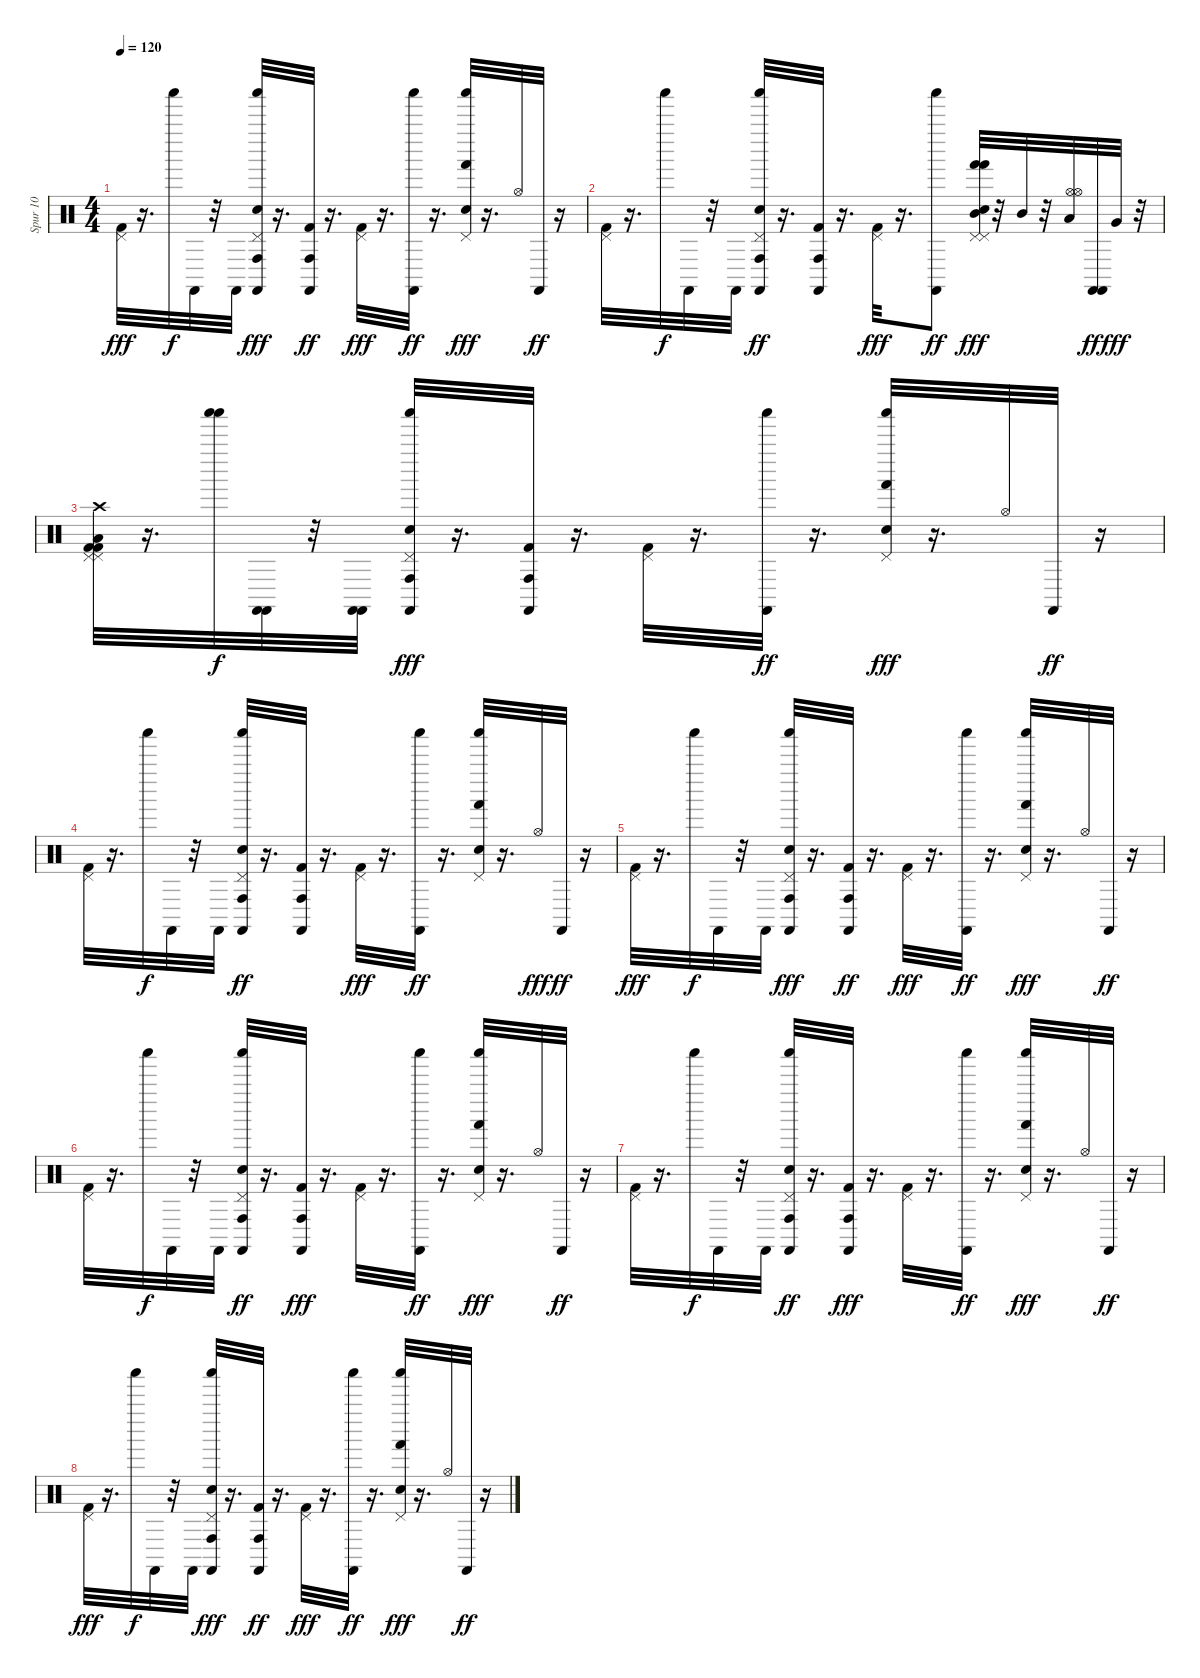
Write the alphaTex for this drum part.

\track ("Spur 10" "Spur 10") {instrument percussion}
\staff {score}
\articulation defaults
\ts (4 4)
\tempo 120
\clef neutral
\ks c
("Pedal Hi-Hat (hit)" "Kick (hit) 2").32{dy fff} r.16{d} "Shaker (hit)".32{dy f} "Castanets (hit)".32 r.32 "Castanets (hit)".32 ("Shaker (hit)" "Conga high (hit)" "Castanets (hit)" "Snare (hit) 2" "Pedal Hi-Hat (hit)").32{dy fff} r.16{d} ("Conga high (hit)" "Castanets (hit)" "Kick (hit) 2").32{dy ff} r.16{d} ("Kick (hit) 2" "Pedal Hi-Hat (hit)").32{dy fff} r.16{d} ("Castanets (hit)" "Shaker (hit)").32{dy ff} r.16{d} ("Shaker (hit)" "Pedal Hi-Hat (hit)" "Hand (hit)" "Snare (hit) 2").32{dy fff} r.16{d} "Hi-Hat (open)".32 "Castanets (hit)".32{dy ff} r.16 |
("Kick (hit) 2" "Pedal Hi-Hat (hit)").32 r.16{d} "Shaker (hit)".32{dy f} "Castanets (hit)".32 r.32 "Castanets (hit)".32 ("Conga high (hit)" "Snare (hit) 2" "Pedal Hi-Hat (hit)" "Shaker (hit)" "Castanets (hit)").32{dy ff} r.16{d} ("Castanets (hit)" "Conga high (hit)" "Kick (hit) 2").32 r.16{d} ("Kick (hit) 2" "Pedal Hi-Hat (hit)").32{dy fff} r.16{d} ("Castanets (hit)" "Shaker (hit)").8{dy ff} ("Mid Tom (hit)" "Pedal Hi-Hat (hit)" "Hand (hit)" "Snare (hit) 2" "Hand (hit)" "Pedal Hi-Hat (hit)").32{dy fff} r.32 "Mid Tom (hit)".32 r.32 ("Low Tom (hit)" "Hi-Hat (open)" "Hi-Hat (open)").32 ("Castanets (hit)" "Castanets (hit)").32{dy ff} "Very Low Tom (hit)".32{dy fff} r.32 |
("Low Floor Tom (hit)" "Crash high (hit)" "Pedal Hi-Hat (hit)" "Kick (hit) 2" "Pedal Hi-Hat (hit)" "Kick (hit) 2").32 r.16{d} ("Shaker (hit)" "Shaker (hit)").32{dy f} ("Castanets (hit)" "Castanets (hit)").32 r.32 ("Castanets (hit)" "Castanets (hit)").32 ("Conga high (hit)" "Shaker (hit)" "Pedal Hi-Hat (hit)" "Castanets (hit)" "Snare (hit) 2").32{dy fff} r.16{d} ("Castanets (hit)" "Kick (hit) 2" "Conga high (hit)").32 r.16{d} ("Kick (hit) 2" "Pedal Hi-Hat (hit)").32 r.16{d} ("Castanets (hit)" "Shaker (hit)").32{dy ff} r.16{d} ("Hand (hit)" "Pedal Hi-Hat (hit)" "Shaker (hit)" "Snare (hit) 2").32{dy fff} r.16{d} "Hi-Hat (open)".32 "Castanets (hit)".32{dy ff} r.16 |
("Kick (hit) 2" "Pedal Hi-Hat (hit)").32 r.16{d} "Shaker (hit)".32{dy f} "Castanets (hit)".32 r.32 "Castanets (hit)".32 ("Snare (hit) 2" "Shaker (hit)" "Pedal Hi-Hat (hit)" "Conga high (hit)" "Castanets (hit)").32{dy ff} r.16{d} ("Castanets (hit)" "Conga high (hit)" "Kick (hit) 2").32 r.16{d} ("Kick (hit) 2" "Pedal Hi-Hat (hit)").32{dy fff} r.16{d} ("Shaker (hit)" "Castanets (hit)").32{dy ff} r.16{d} ("Pedal Hi-Hat (hit)" "Hand (hit)" "Snare (hit) 2" "Shaker (hit)").32 r.16{d} "Hi-Hat (open)".32{dy fff} "Castanets (hit)".32{dy ff} r.16 |
("Pedal Hi-Hat (hit)" "Kick (hit) 2").32{dy fff} r.16{d} "Shaker (hit)".32{dy f} "Castanets (hit)".32 r.32 "Castanets (hit)".32 ("Snare (hit) 2" "Conga high (hit)" "Shaker (hit)" "Castanets (hit)" "Pedal Hi-Hat (hit)").32{dy fff} r.16{d} ("Conga high (hit)" "Kick (hit) 2" "Castanets (hit)").32{dy ff} r.16{d} ("Pedal Hi-Hat (hit)" "Kick (hit) 2").32{dy fff} r.16{d} ("Shaker (hit)" "Castanets (hit)").32{dy ff} r.16{d} ("Shaker (hit)" "Snare (hit) 2" "Hand (hit)" "Pedal Hi-Hat (hit)").32{dy fff} r.16{d} "Hi-Hat (open)".32 "Castanets (hit)".32{dy ff} r.16 |
("Kick (hit) 2" "Pedal Hi-Hat (hit)").32 r.16{d} "Shaker (hit)".32{dy f} "Castanets (hit)".32 r.32 "Castanets (hit)".32 ("Snare (hit) 2" "Conga high (hit)" "Pedal Hi-Hat (hit)" "Shaker (hit)" "Castanets (hit)").32{dy ff} r.16{d} ("Castanets (hit)" "Kick (hit) 2" "Conga high (hit)").32{dy fff} r.16{d} ("Kick (hit) 2" "Pedal Hi-Hat (hit)").32 r.16{d} ("Shaker (hit)" "Castanets (hit)").32{dy ff} r.16{d} ("Hand (hit)" "Pedal Hi-Hat (hit)" "Shaker (hit)" "Snare (hit) 2").32{dy fff} r.16{d} "Hi-Hat (open)".32 "Castanets (hit)".32{dy ff} r.16 |
("Kick (hit) 2" "Pedal Hi-Hat (hit)").32 r.16{d} "Shaker (hit)".32{dy f} "Castanets (hit)".32 r.32 "Castanets (hit)".32 ("Pedal Hi-Hat (hit)" "Conga high (hit)" "Snare (hit) 2" "Shaker (hit)" "Castanets (hit)").32{dy ff} r.16{d} ("Kick (hit) 2" "Castanets (hit)" "Conga high (hit)").32{dy fff} r.16{d} ("Kick (hit) 2" "Pedal Hi-Hat (hit)").32 r.16{d} ("Castanets (hit)" "Shaker (hit)").32{dy ff} r.16{d} ("Shaker (hit)" "Hand (hit)" "Snare (hit) 2" "Pedal Hi-Hat (hit)").32{dy fff} r.16{d} "Hi-Hat (open)".32 "Castanets (hit)".32{dy ff} r.16 |
("Pedal Hi-Hat (hit)" "Kick (hit) 2").32{dy fff} r.16{d} "Shaker (hit)".32{dy f} "Castanets (hit)".32 r.32 "Castanets (hit)".32 ("Shaker (hit)" "Snare (hit) 2" "Castanets (hit)" "Conga high (hit)" "Pedal Hi-Hat (hit)").32{dy fff} r.16{d} ("Conga high (hit)" "Kick (hit) 2" "Castanets (hit)").32{dy ff} r.16{d} ("Pedal Hi-Hat (hit)" "Kick (hit) 2").32{dy fff} r.16{d} ("Shaker (hit)" "Castanets (hit)").32{dy ff} r.16{d} ("Shaker (hit)" "Hand (hit)" "Pedal Hi-Hat (hit)" "Snare (hit) 2").32{dy fff} r.16{d} "Hi-Hat (open)".32 "Castanets (hit)".32{dy ff} r.16
